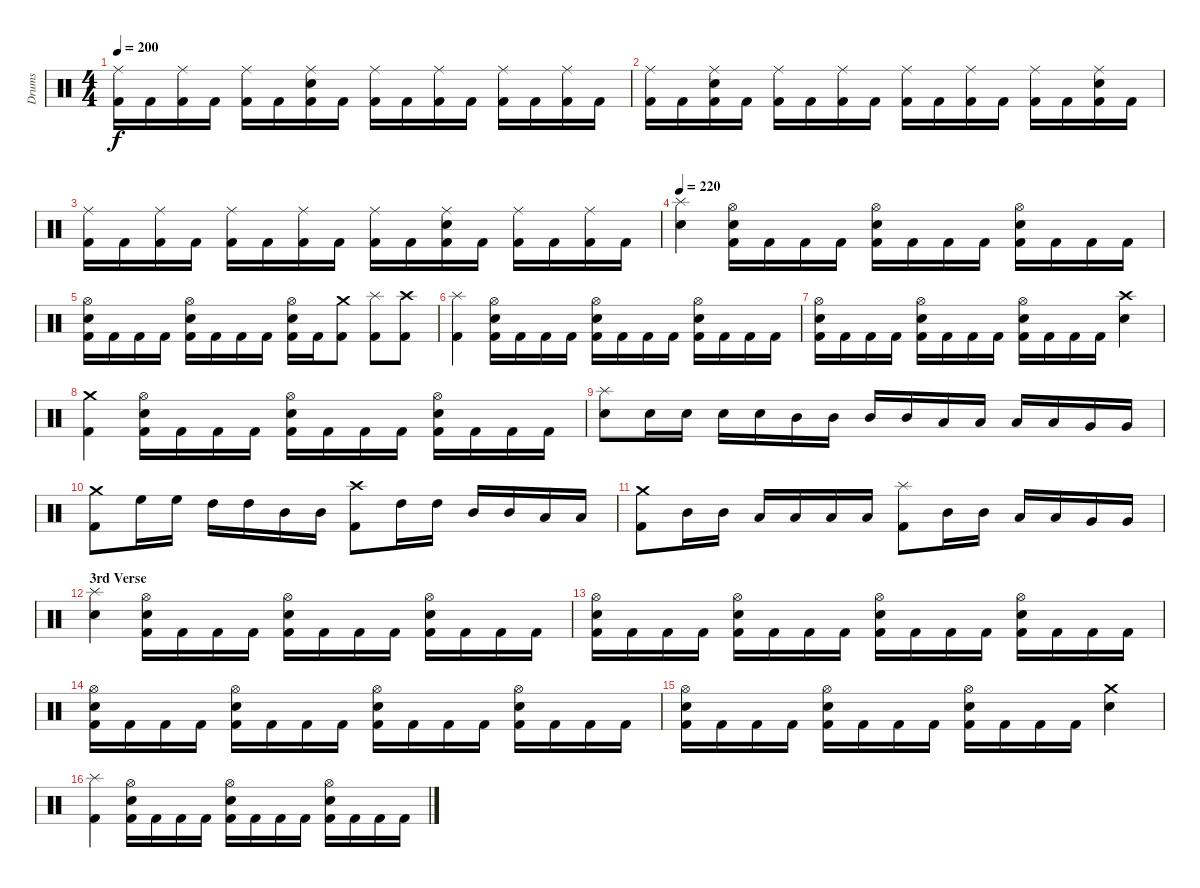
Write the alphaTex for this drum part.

\track ("Drums" "Drums") {instrument percussion}
\staff {score}
\articulation defaults
\ts (4 4)
\tempo 200
\clef neutral
\ks c
("Ride (middle)" "Kick (hit) 2").16{dy f} "Kick (hit) 2".16 ("Ride (middle)" "Kick (hit) 2").16 "Kick (hit) 2".16 ("Ride (middle)" "Kick (hit) 2").16 "Kick (hit) 2".16 ("Ride (middle)" "Electric Snare (hit)" "Kick (hit) 2").16 "Kick (hit) 2".16 ("Ride (middle)" "Kick (hit) 2").16 "Kick (hit) 2".16 ("Ride (middle)" "Kick (hit) 2").16 "Kick (hit) 2".16 ("Ride (middle)" "Kick (hit) 2").16 "Kick (hit) 2".16 ("Ride (middle)" "Kick (hit) 2").16 "Kick (hit) 2".16 |
("Ride (middle)" "Kick (hit) 2").16 "Kick (hit) 2".16 ("Ride (middle)" "Electric Snare (hit)" "Kick (hit) 2").16 "Kick (hit) 2".16 ("Ride (middle)" "Kick (hit) 2").16 "Kick (hit) 2".16 ("Ride (middle)" "Kick (hit) 2").16 "Kick (hit) 2".16 ("Ride (middle)" "Kick (hit) 2").16 "Kick (hit) 2".16 ("Ride (middle)" "Kick (hit) 2").16 "Kick (hit) 2".16 ("Ride (middle)" "Kick (hit) 2").16 "Kick (hit) 2".16 ("Ride (middle)" "Electric Snare (hit)" "Kick (hit) 2").16 "Kick (hit) 2".16 |
("Ride (middle)" "Kick (hit) 2").16 "Kick (hit) 2".16 ("Ride (middle)" "Kick (hit) 2").16 "Kick (hit) 2".16 ("Ride (middle)" "Kick (hit) 2").16 "Kick (hit) 2".16 ("Ride (middle)" "Kick (hit) 2").16 "Kick (hit) 2".16 ("Ride (middle)" "Kick (hit) 2").16 "Kick (hit) 2".16 ("Ride (middle)" "Electric Snare (hit)" "Kick (hit) 2").16 "Kick (hit) 2".16 ("Ride (middle)" "Kick (hit) 2").16 "Kick (hit) 2".16 ("Ride (middle)" "Kick (hit) 2").16 "Kick (hit) 2".16 |
\tempo 220
("Splash (hit)" "Electric Snare (hit)").4 ("Hi-Hat (open)" "Electric Snare (hit)" "Kick (hit) 2").16 "Kick (hit) 2".16 "Kick (hit) 2".16 "Kick (hit) 2".16 ("Hi-Hat (open)" "Electric Snare (hit)" "Kick (hit) 2").16 "Kick (hit) 2".16 "Kick (hit) 2".16 "Kick (hit) 2".16 ("Hi-Hat (open)" "Electric Snare (hit)" "Kick (hit) 2").16 "Kick (hit) 2".16 "Kick (hit) 2".16 "Kick (hit) 2".16 |
("Hi-Hat (open)" "Electric Snare (hit)" "Kick (hit) 2").16 "Kick (hit) 2".16 "Kick (hit) 2".16 "Kick (hit) 2".16 ("Hi-Hat (open)" "Electric Snare (hit)" "Kick (hit) 2").16 "Kick (hit) 2".16 "Kick (hit) 2".16 "Kick (hit) 2".16 ("Hi-Hat (open)" "Electric Snare (hit)" "Kick (hit) 2").16 "Kick (hit) 2".16 ("Crash medium (hit)" "Kick (hit) 2").8 ("Splash (hit)" "Kick (hit) 2").8 ("Crash high (hit)" "Kick (hit) 2").8 |
("Splash (hit)" "Kick (hit) 2").4 ("Hi-Hat (open)" "Electric Snare (hit)" "Kick (hit) 2").16 "Kick (hit) 2".16 "Kick (hit) 2".16 "Kick (hit) 2".16 ("Hi-Hat (open)" "Electric Snare (hit)" "Kick (hit) 2").16 "Kick (hit) 2".16 "Kick (hit) 2".16 "Kick (hit) 2".16 ("Hi-Hat (open)" "Electric Snare (hit)" "Kick (hit) 2").16 "Kick (hit) 2".16 "Kick (hit) 2".16 "Kick (hit) 2".16 |
("Hi-Hat (open)" "Electric Snare (hit)" "Kick (hit) 2").16 "Kick (hit) 2".16 "Kick (hit) 2".16 "Kick (hit) 2".16 ("Hi-Hat (open)" "Electric Snare (hit)" "Kick (hit) 2").16 "Kick (hit) 2".16 "Kick (hit) 2".16 "Kick (hit) 2".16 ("Hi-Hat (open)" "Electric Snare (hit)" "Kick (hit) 2").16 "Kick (hit) 2".16 "Kick (hit) 2".16 "Kick (hit) 2".16 ("Crash high (hit)" "Electric Snare (hit)").4 |
("Crash medium (hit)" "Kick (hit) 2").4 ("Hi-Hat (open)" "Electric Snare (hit)" "Kick (hit) 2").16 "Kick (hit) 2".16 "Kick (hit) 2".16 "Kick (hit) 2".16 ("Hi-Hat (open)" "Electric Snare (hit)" "Kick (hit) 2").16 "Kick (hit) 2".16 "Kick (hit) 2".16 "Kick (hit) 2".16 ("Hi-Hat (open)" "Electric Snare (hit)" "Kick (hit) 2").16 "Kick (hit) 2".16 "Kick (hit) 2".16 "Kick (hit) 2".16 |
("Splash (hit)" "Electric Snare (hit)").8 "Electric Snare (hit)".16 "Electric Snare (hit)".16 "Electric Snare (hit)".16 "Electric Snare (hit)".16 "Mid Tom (hit)".16 "Mid Tom (hit)".16 "Mid Tom (hit)".16 "Mid Tom (hit)".16 "Low Tom (hit)".16 "Low Tom (hit)".16 "Low Tom (hit)".16 "Low Tom (hit)".16 "Very Low Tom (hit)".16 "Very Low Tom (hit)".16 |
("Crash medium (hit)" "Kick (hit) 2").8 "High Floor Tom (hit)".16 "High Floor Tom (hit)".16 "High Tom (hit)".16 "High Tom (hit)".16 "Mid Tom (hit)".16 "Mid Tom (hit)".16 ("Crash high (hit)" "Kick (hit) 2").8 "High Tom (hit)".16 "High Tom (hit)".16 "Mid Tom (hit)".16 "Mid Tom (hit)".16 "Low Tom (hit)".16 "Low Tom (hit)".16 |
("Crash medium (hit)" "Kick (hit) 2").8 "Mid Tom (hit)".16 "Mid Tom (hit)".16 "Low Tom (hit)".16 "Low Tom (hit)".16 "Low Tom (hit)".16 "Low Tom (hit)".16 ("Splash (hit)" "Kick (hit) 2").8 "Mid Tom (hit)".16 "Mid Tom (hit)".16 "Low Tom (hit)".16 "Low Tom (hit)".16 "Very Low Tom (hit)".16 "Very Low Tom (hit)".16 |
\section ("" "3rd Verse")
("Splash (hit)" "Electric Snare (hit)").4 ("Hi-Hat (open)" "Electric Snare (hit)" "Kick (hit) 2").16 "Kick (hit) 2".16 "Kick (hit) 2".16 "Kick (hit) 2".16 ("Hi-Hat (open)" "Electric Snare (hit)" "Kick (hit) 2").16 "Kick (hit) 2".16 "Kick (hit) 2".16 "Kick (hit) 2".16 ("Hi-Hat (open)" "Electric Snare (hit)" "Kick (hit) 2").16 "Kick (hit) 2".16 "Kick (hit) 2".16 "Kick (hit) 2".16 |
("Hi-Hat (open)" "Electric Snare (hit)" "Kick (hit) 2").16 "Kick (hit) 2".16 "Kick (hit) 2".16 "Kick (hit) 2".16 ("Hi-Hat (open)" "Electric Snare (hit)" "Kick (hit) 2").16 "Kick (hit) 2".16 "Kick (hit) 2".16 "Kick (hit) 2".16 ("Hi-Hat (open)" "Electric Snare (hit)" "Kick (hit) 2").16 "Kick (hit) 2".16 "Kick (hit) 2".16 "Kick (hit) 2".16 ("Hi-Hat (open)" "Electric Snare (hit)" "Kick (hit) 2").16 "Kick (hit) 2".16 "Kick (hit) 2".16 "Kick (hit) 2".16 |
("Hi-Hat (open)" "Electric Snare (hit)" "Kick (hit) 2").16 "Kick (hit) 2".16 "Kick (hit) 2".16 "Kick (hit) 2".16 ("Hi-Hat (open)" "Electric Snare (hit)" "Kick (hit) 2").16 "Kick (hit) 2".16 "Kick (hit) 2".16 "Kick (hit) 2".16 ("Hi-Hat (open)" "Electric Snare (hit)" "Kick (hit) 2").16 "Kick (hit) 2".16 "Kick (hit) 2".16 "Kick (hit) 2".16 ("Hi-Hat (open)" "Electric Snare (hit)" "Kick (hit) 2").16 "Kick (hit) 2".16 "Kick (hit) 2".16 "Kick (hit) 2".16 |
("Hi-Hat (open)" "Electric Snare (hit)" "Kick (hit) 2").16 "Kick (hit) 2".16 "Kick (hit) 2".16 "Kick (hit) 2".16 ("Hi-Hat (open)" "Electric Snare (hit)" "Kick (hit) 2").16 "Kick (hit) 2".16 "Kick (hit) 2".16 "Kick (hit) 2".16 ("Hi-Hat (open)" "Electric Snare (hit)" "Kick (hit) 2").16 "Kick (hit) 2".16 "Kick (hit) 2".16 "Kick (hit) 2".16 ("Crash medium (hit)" "Electric Snare (hit)").4 |
("Splash (hit)" "Kick (hit) 2").4 ("Hi-Hat (open)" "Electric Snare (hit)" "Kick (hit) 2").16 "Kick (hit) 2".16 "Kick (hit) 2".16 "Kick (hit) 2".16 ("Hi-Hat (open)" "Electric Snare (hit)" "Kick (hit) 2").16 "Kick (hit) 2".16 "Kick (hit) 2".16 "Kick (hit) 2".16 ("Hi-Hat (open)" "Electric Snare (hit)" "Kick (hit) 2").16 "Kick (hit) 2".16 "Kick (hit) 2".16 "Kick (hit) 2".16
